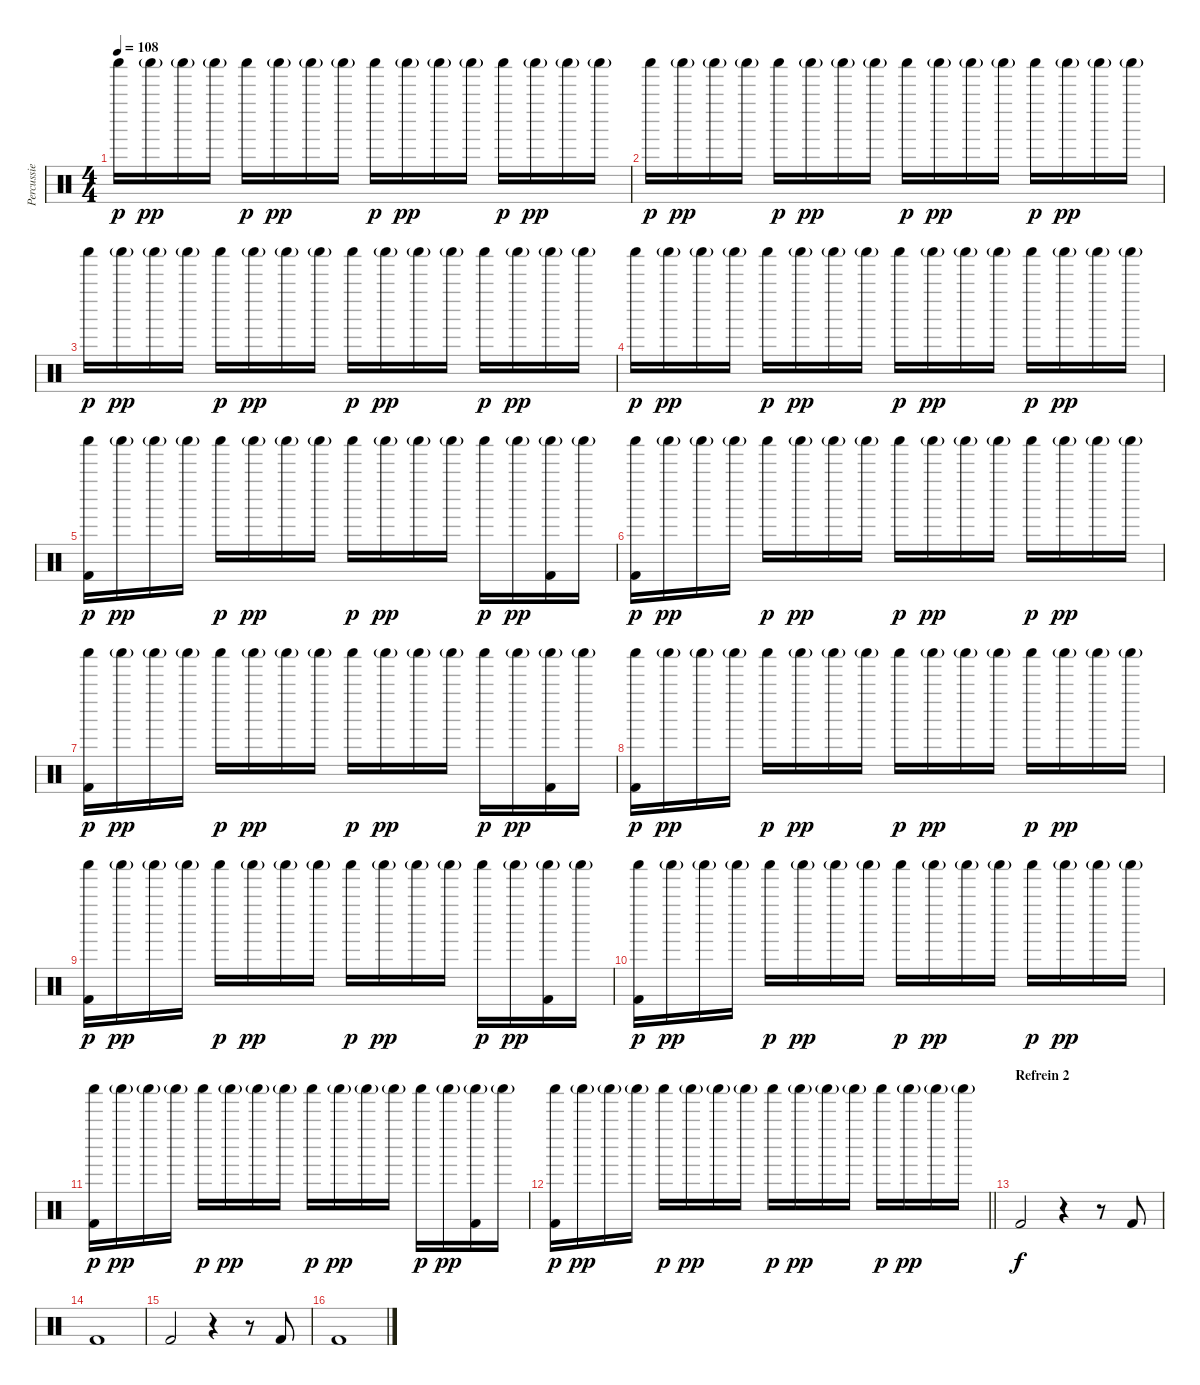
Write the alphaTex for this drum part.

\track ("Percussie" "Percussie") {instrument percussion}
\staff {score}
\articulation defaults
\ts (4 4)
\tempo 108
\clef neutral
\ks c "Shaker (hit)".16{dy p} "Shaker (hit)"{g}.16{dy pp} "Shaker (hit)"{g}.16 "Shaker (hit)"{g}.16 "Shaker (hit)".16{dy p} "Shaker (hit)"{g}.16{dy pp} "Shaker (hit)"{g}.16 "Shaker (hit)"{g}.16 "Shaker (hit)".16{dy p} "Shaker (hit)"{g}.16{dy pp} "Shaker (hit)"{g}.16 "Shaker (hit)"{g}.16 "Shaker (hit)".16{dy p} "Shaker (hit)"{g}.16{dy pp} "Shaker (hit)"{g}.16 "Shaker (hit)"{g}.16
|
"Shaker (hit)".16{dy p} "Shaker (hit)"{g}.16{dy pp} "Shaker (hit)"{g}.16 "Shaker (hit)"{g}.16 "Shaker (hit)".16{dy p} "Shaker (hit)"{g}.16{dy pp} "Shaker (hit)"{g}.16 "Shaker (hit)"{g}.16 "Shaker (hit)".16{dy p} "Shaker (hit)"{g}.16{dy pp} "Shaker (hit)"{g}.16 "Shaker (hit)"{g}.16 "Shaker (hit)".16{dy p} "Shaker (hit)"{g}.16{dy pp} "Shaker (hit)"{g}.16 "Shaker (hit)"{g}.16 |
"Shaker (hit)".16{dy p} "Shaker (hit)"{g}.16{dy pp} "Shaker (hit)"{g}.16 "Shaker (hit)"{g}.16 "Shaker (hit)".16{dy p} "Shaker (hit)"{g}.16{dy pp} "Shaker (hit)"{g}.16 "Shaker (hit)"{g}.16 "Shaker (hit)".16{dy p} "Shaker (hit)"{g}.16{dy pp} "Shaker (hit)"{g}.16 "Shaker (hit)"{g}.16 "Shaker (hit)".16{dy p} "Shaker (hit)"{g}.16{dy pp} "Shaker (hit)"{g}.16 "Shaker (hit)"{g}.16 |
"Shaker (hit)".16{dy p} "Shaker (hit)"{g}.16{dy pp} "Shaker (hit)"{g}.16 "Shaker (hit)"{g}.16 "Shaker (hit)".16{dy p} "Shaker (hit)"{g}.16{dy pp} "Shaker (hit)"{g}.16 "Shaker (hit)"{g}.16 "Shaker (hit)".16{dy p} "Shaker (hit)"{g}.16{dy pp} "Shaker (hit)"{g}.16 "Shaker (hit)"{g}.16 "Shaker (hit)".16{dy p} "Shaker (hit)"{g}.16{dy pp} "Shaker (hit)"{g}.16 "Shaker (hit)"{g}.16 |
("Shaker (hit)" "Kick (hit) 2").16{dy p} "Shaker (hit)"{g}.16{dy pp} "Shaker (hit)"{g}.16 "Shaker (hit)"{g}.16 "Shaker (hit)".16{dy p} "Shaker (hit)"{g}.16{dy pp} "Shaker (hit)"{g}.16 "Shaker (hit)"{g}.16 "Shaker (hit)".16{dy p} "Shaker (hit)"{g}.16{dy pp} "Shaker (hit)"{g}.16 "Shaker (hit)"{g}.16 "Shaker (hit)".16{dy p} "Shaker (hit)"{g}.16{dy pp} ("Shaker (hit)"{g} "Kick (hit) 2").16 "Shaker (hit)"{g}.16 |
("Shaker (hit)" "Kick (hit) 2").16{dy p} "Shaker (hit)"{g}.16{dy pp} "Shaker (hit)"{g}.16 "Shaker (hit)"{g}.16 "Shaker (hit)".16{dy p} "Shaker (hit)"{g}.16{dy pp} "Shaker (hit)"{g}.16 "Shaker (hit)"{g}.16 "Shaker (hit)".16{dy p} "Shaker (hit)"{g}.16{dy pp} "Shaker (hit)"{g}.16 "Shaker (hit)"{g}.16 "Shaker (hit)".16{dy p} "Shaker (hit)"{g}.16{dy pp} "Shaker (hit)"{g}.16 "Shaker (hit)"{g}.16 |
("Shaker (hit)" "Kick (hit) 2").16{dy p} "Shaker (hit)"{g}.16{dy pp} "Shaker (hit)"{g}.16 "Shaker (hit)"{g}.16 "Shaker (hit)".16{dy p} "Shaker (hit)"{g}.16{dy pp} "Shaker (hit)"{g}.16 "Shaker (hit)"{g}.16 "Shaker (hit)".16{dy p} "Shaker (hit)"{g}.16{dy pp} "Shaker (hit)"{g}.16 "Shaker (hit)"{g}.16 "Shaker (hit)".16{dy p} "Shaker (hit)"{g}.16{dy pp} ("Shaker (hit)"{g} "Kick (hit) 2").16 "Shaker (hit)"{g}.16 |
("Shaker (hit)" "Kick (hit) 2").16{dy p} "Shaker (hit)"{g}.16{dy pp} "Shaker (hit)"{g}.16 "Shaker (hit)"{g}.16 "Shaker (hit)".16{dy p} "Shaker (hit)"{g}.16{dy pp} "Shaker (hit)"{g}.16 "Shaker (hit)"{g}.16 "Shaker (hit)".16{dy p} "Shaker (hit)"{g}.16{dy pp} "Shaker (hit)"{g}.16 "Shaker (hit)"{g}.16 "Shaker (hit)".16{dy p} "Shaker (hit)"{g}.16{dy pp} "Shaker (hit)"{g}.16 "Shaker (hit)"{g}.16 |
("Shaker (hit)" "Kick (hit) 2").16{dy p} "Shaker (hit)"{g}.16{dy pp} "Shaker (hit)"{g}.16 "Shaker (hit)"{g}.16 "Shaker (hit)".16{dy p} "Shaker (hit)"{g}.16{dy pp} "Shaker (hit)"{g}.16 "Shaker (hit)"{g}.16 "Shaker (hit)".16{dy p} "Shaker (hit)"{g}.16{dy pp} "Shaker (hit)"{g}.16 "Shaker (hit)"{g}.16 "Shaker (hit)".16{dy p} "Shaker (hit)"{g}.16{dy pp} ("Shaker (hit)"{g} "Kick (hit) 2").16 "Shaker (hit)"{g}.16 |
("Shaker (hit)" "Kick (hit) 2").16{dy p} "Shaker (hit)"{g}.16{dy pp} "Shaker (hit)"{g}.16 "Shaker (hit)"{g}.16 "Shaker (hit)".16{dy p} "Shaker (hit)"{g}.16{dy pp} "Shaker (hit)"{g}.16 "Shaker (hit)"{g}.16 "Shaker (hit)".16{dy p} "Shaker (hit)"{g}.16{dy pp} "Shaker (hit)"{g}.16 "Shaker (hit)"{g}.16 "Shaker (hit)".16{dy p} "Shaker (hit)"{g}.16{dy pp} "Shaker (hit)"{g}.16 "Shaker (hit)"{g}.16 |
("Shaker (hit)" "Kick (hit) 2").16{dy p} "Shaker (hit)"{g}.16{dy pp} "Shaker (hit)"{g}.16 "Shaker (hit)"{g}.16 "Shaker (hit)".16{dy p} "Shaker (hit)"{g}.16{dy pp} "Shaker (hit)"{g}.16 "Shaker (hit)"{g}.16 "Shaker (hit)".16{dy p} "Shaker (hit)"{g}.16{dy pp} "Shaker (hit)"{g}.16 "Shaker (hit)"{g}.16 "Shaker (hit)".16{dy p} "Shaker (hit)"{g}.16{dy pp} ("Shaker (hit)"{g} "Kick (hit) 2").16 "Shaker (hit)"{g}.16 |
\barLineRight lightlight
("Shaker (hit)" "Kick (hit) 2").16{dy p} "Shaker (hit)"{g}.16{dy pp} "Shaker (hit)"{g}.16 "Shaker (hit)"{g}.16 "Shaker (hit)".16{dy p} "Shaker (hit)"{g}.16{dy pp} "Shaker (hit)"{g}.16 "Shaker (hit)"{g}.16 "Shaker (hit)".16{dy p} "Shaker (hit)"{g}.16{dy pp} "Shaker (hit)"{g}.16 "Shaker (hit)"{g}.16 "Shaker (hit)".16{dy p} "Shaker (hit)"{g}.16{dy pp} "Shaker (hit)"{g}.16 "Shaker (hit)"{g}.16 |
\section ("" "Refrein 2")
"Kick (hit) 2".2{dy f} r.4 r.8 "Kick (hit) 2".8 |
"Kick (hit) 2".1 |
"Kick (hit) 2".2 r.4 r.8 "Kick (hit) 2".8 |
"Kick (hit) 2".1
